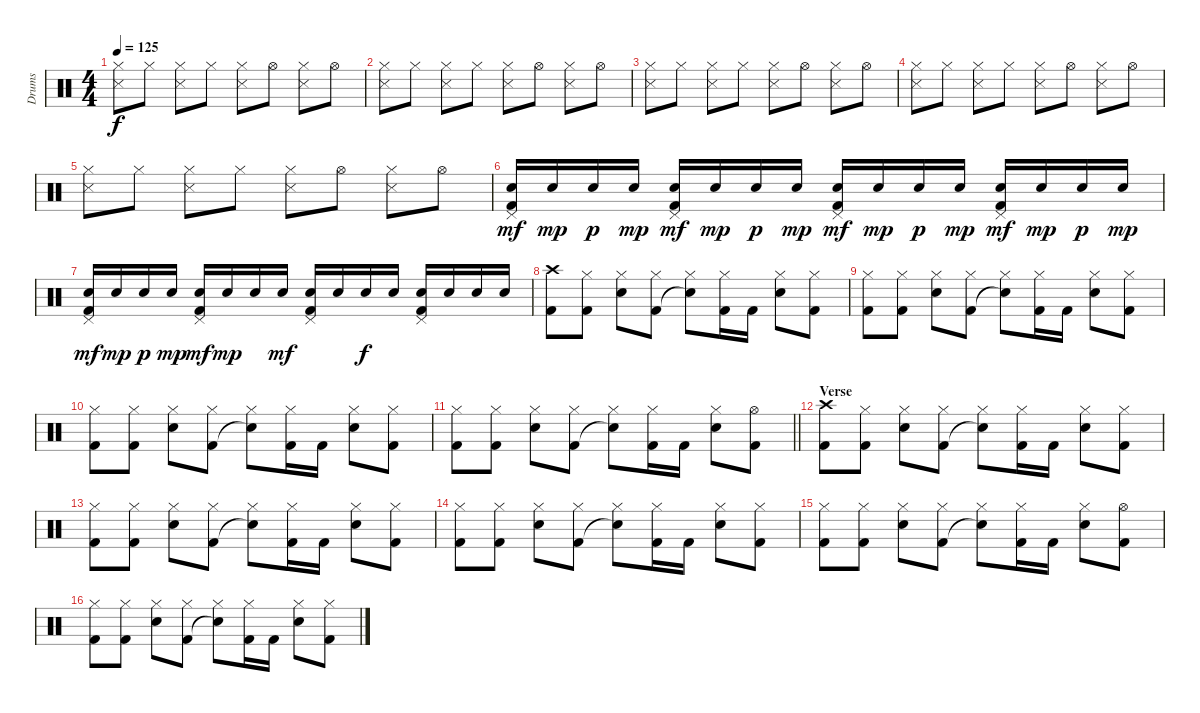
\track ("Drums" "Drums") {instrument percussion}
\staff {score}
\articulation defaults
\ts (4 4)
\tempo 125
\clef neutral
\ks c
("Hi-Hat (closed)" "Snare (side stick) 3").8{dy f} "Hi-Hat (closed)".8 ("Hi-Hat (closed)" "Snare (side stick) 3").8 "Hi-Hat (closed)".8 ("Hi-Hat (closed)" "Snare (side stick) 3").8 "Hi-Hat (open)".8 ("Hi-Hat (closed)" "Snare (side stick) 3").8 "Hi-Hat (open)".8 |
("Hi-Hat (closed)" "Snare (side stick) 3").8 "Hi-Hat (closed)".8 ("Hi-Hat (closed)" "Snare (side stick) 3").8 "Hi-Hat (closed)".8 ("Hi-Hat (closed)" "Snare (side stick) 3").8 "Hi-Hat (open)".8 ("Hi-Hat (closed)" "Snare (side stick) 3").8 "Hi-Hat (open)".8 |
("Hi-Hat (closed)" "Snare (side stick) 3").8 "Hi-Hat (closed)".8 ("Hi-Hat (closed)" "Snare (side stick) 3").8 "Hi-Hat (closed)".8 ("Hi-Hat (closed)" "Snare (side stick) 3").8 "Hi-Hat (open)".8 ("Hi-Hat (closed)" "Snare (side stick) 3").8 "Hi-Hat (open)".8 |
("Hi-Hat (closed)" "Snare (side stick) 3").8 "Hi-Hat (closed)".8 ("Hi-Hat (closed)" "Snare (side stick) 3").8 "Hi-Hat (closed)".8 ("Hi-Hat (closed)" "Snare (side stick) 3").8 "Hi-Hat (open)".8 ("Hi-Hat (closed)" "Snare (side stick) 3").8 "Hi-Hat (open)".8 |
("Hi-Hat (closed)" "Snare (side stick) 3").8 "Hi-Hat (closed)".8 ("Hi-Hat (closed)" "Snare (side stick) 3").8 "Hi-Hat (closed)".8 ("Hi-Hat (closed)" "Snare (side stick) 3").8 "Hi-Hat (open)".8 ("Hi-Hat (closed)" "Snare (side stick) 3").8 "Hi-Hat (open)".8 |
("Pedal Hi-Hat (hit)" "Kick (hit) 2" "Electric Snare (hit)").16{dy mf} "Electric Snare (hit)".16{dy mp} "Electric Snare (hit)".16{dy p} "Electric Snare (hit)".16{dy mp} ("Pedal Hi-Hat (hit)" "Kick (hit) 2" "Electric Snare (hit)").16{dy mf} "Electric Snare (hit)".16{dy mp} "Electric Snare (hit)".16{dy p} "Electric Snare (hit)".16{dy mp} ("Pedal Hi-Hat (hit)" "Kick (hit) 2" "Electric Snare (hit)").16{dy mf} "Electric Snare (hit)".16{dy mp} "Electric Snare (hit)".16{dy p} "Electric Snare (hit)".16{dy mp} ("Pedal Hi-Hat (hit)" "Kick (hit) 2" "Electric Snare (hit)").16{dy mf} "Electric Snare (hit)".16{dy mp} "Electric Snare (hit)".16{dy p} "Electric Snare (hit)".16{dy mp} |
("Pedal Hi-Hat (hit)" "Kick (hit) 2" "Electric Snare (hit)").16{dy mf} "Electric Snare (hit)".16{dy mp} "Electric Snare (hit)".16{dy p} "Electric Snare (hit)".16{dy mp} ("Pedal Hi-Hat (hit)" "Kick (hit) 2" "Electric Snare (hit)").16{dy mf} "Electric Snare (hit)".16{dy mp} "Electric Snare (hit)".16 "Electric Snare (hit)".16{dy mf} ("Pedal Hi-Hat (hit)" "Kick (hit) 2" "Electric Snare (hit)").16 "Electric Snare (hit)".16 "Electric Snare (hit)".16{dy f} "Electric Snare (hit)".16 ("Pedal Hi-Hat (hit)" "Kick (hit) 2" "Electric Snare (hit)").16 "Electric Snare (hit)".16 "Electric Snare (hit)".16 "Electric Snare (hit)".16 |
("Crash high (hit)" "Kick (hit) 2").8 ("Hi-Hat (closed)" "Kick (hit) 2").8 ("Hi-Hat (closed)" "Electric Snare (hit)").8 ("Hi-Hat (closed)" "Kick (hit) 2").8 ("Hi-Hat (closed)" "Snare (hit)"{t}).8 ("Hi-Hat (closed)" "Kick (hit) 2").16 "Kick (hit) 2".16 ("Hi-Hat (closed)" "Electric Snare (hit)").8 ("Hi-Hat (closed)" "Kick (hit) 2").8 |
("Hi-Hat (closed)" "Kick (hit) 2").8 ("Hi-Hat (closed)" "Kick (hit) 2").8 ("Hi-Hat (closed)" "Electric Snare (hit)").8 ("Hi-Hat (closed)" "Kick (hit) 2").8 ("Hi-Hat (closed)" "Snare (hit)"{t}).8 ("Hi-Hat (closed)" "Kick (hit) 2").16 "Kick (hit) 2".16 ("Hi-Hat (closed)" "Electric Snare (hit)").8 ("Hi-Hat (closed)" "Kick (hit) 2").8 |
("Hi-Hat (closed)" "Kick (hit) 2").8 ("Hi-Hat (closed)" "Kick (hit) 2").8 ("Hi-Hat (closed)" "Electric Snare (hit)").8 ("Hi-Hat (closed)" "Kick (hit) 2").8 ("Hi-Hat (closed)" "Snare (hit)"{t}).8 ("Hi-Hat (closed)" "Kick (hit) 2").16 "Kick (hit) 2".16 ("Hi-Hat (closed)" "Electric Snare (hit)").8 ("Hi-Hat (closed)" "Kick (hit) 2").8 |
\barLineRight lightlight
("Hi-Hat (closed)" "Kick (hit) 2").8 ("Hi-Hat (closed)" "Kick (hit) 2").8 ("Hi-Hat (closed)" "Electric Snare (hit)").8 ("Hi-Hat (closed)" "Kick (hit) 2").8 ("Hi-Hat (closed)" "Snare (hit)"{t}).8 ("Hi-Hat (closed)" "Kick (hit) 2").16 "Kick (hit) 2".16 ("Hi-Hat (closed)" "Electric Snare (hit)").8 ("Hi-Hat (open)" "Kick (hit) 2").8 |
\section ("" "Verse")
("Crash high (hit)" "Kick (hit) 2").8 ("Hi-Hat (closed)" "Kick (hit) 2").8 ("Hi-Hat (closed)" "Electric Snare (hit)").8 ("Hi-Hat (closed)" "Kick (hit) 2").8 ("Hi-Hat (closed)" "Snare (hit)"{t}).8 ("Hi-Hat (closed)" "Kick (hit) 2").16 "Kick (hit) 2".16 ("Hi-Hat (closed)" "Electric Snare (hit)").8 ("Hi-Hat (closed)" "Kick (hit) 2").8 |
("Hi-Hat (closed)" "Kick (hit) 2").8 ("Hi-Hat (closed)" "Kick (hit) 2").8 ("Hi-Hat (closed)" "Electric Snare (hit)").8 ("Hi-Hat (closed)" "Kick (hit) 2").8 ("Hi-Hat (closed)" "Snare (hit)"{t}).8 ("Hi-Hat (closed)" "Kick (hit) 2").16 "Kick (hit) 2".16 ("Hi-Hat (closed)" "Electric Snare (hit)").8 ("Hi-Hat (closed)" "Kick (hit) 2").8 |
("Hi-Hat (closed)" "Kick (hit) 2").8 ("Hi-Hat (closed)" "Kick (hit) 2").8 ("Hi-Hat (closed)" "Electric Snare (hit)").8 ("Hi-Hat (closed)" "Kick (hit) 2").8 ("Hi-Hat (closed)" "Snare (hit)"{t}).8 ("Hi-Hat (closed)" "Kick (hit) 2").16 "Kick (hit) 2".16 ("Hi-Hat (closed)" "Electric Snare (hit)").8 ("Hi-Hat (closed)" "Kick (hit) 2").8 |
("Hi-Hat (closed)" "Kick (hit) 2").8 ("Hi-Hat (closed)" "Kick (hit) 2").8 ("Hi-Hat (closed)" "Electric Snare (hit)").8 ("Hi-Hat (closed)" "Kick (hit) 2").8 ("Hi-Hat (closed)" "Snare (hit)"{t}).8 ("Hi-Hat (closed)" "Kick (hit) 2").16 "Kick (hit) 2".16 ("Hi-Hat (closed)" "Electric Snare (hit)").8 ("Hi-Hat (open)" "Kick (hit) 2").8 |
("Hi-Hat (closed)" "Kick (hit) 2").8 ("Hi-Hat (closed)" "Kick (hit) 2").8 ("Hi-Hat (closed)" "Electric Snare (hit)").8 ("Hi-Hat (closed)" "Kick (hit) 2").8 ("Hi-Hat (closed)" "Snare (hit)"{t}).8 ("Hi-Hat (closed)" "Kick (hit) 2").16 "Kick (hit) 2".16 ("Hi-Hat (closed)" "Electric Snare (hit)").8 ("Hi-Hat (closed)" "Kick (hit) 2").8
